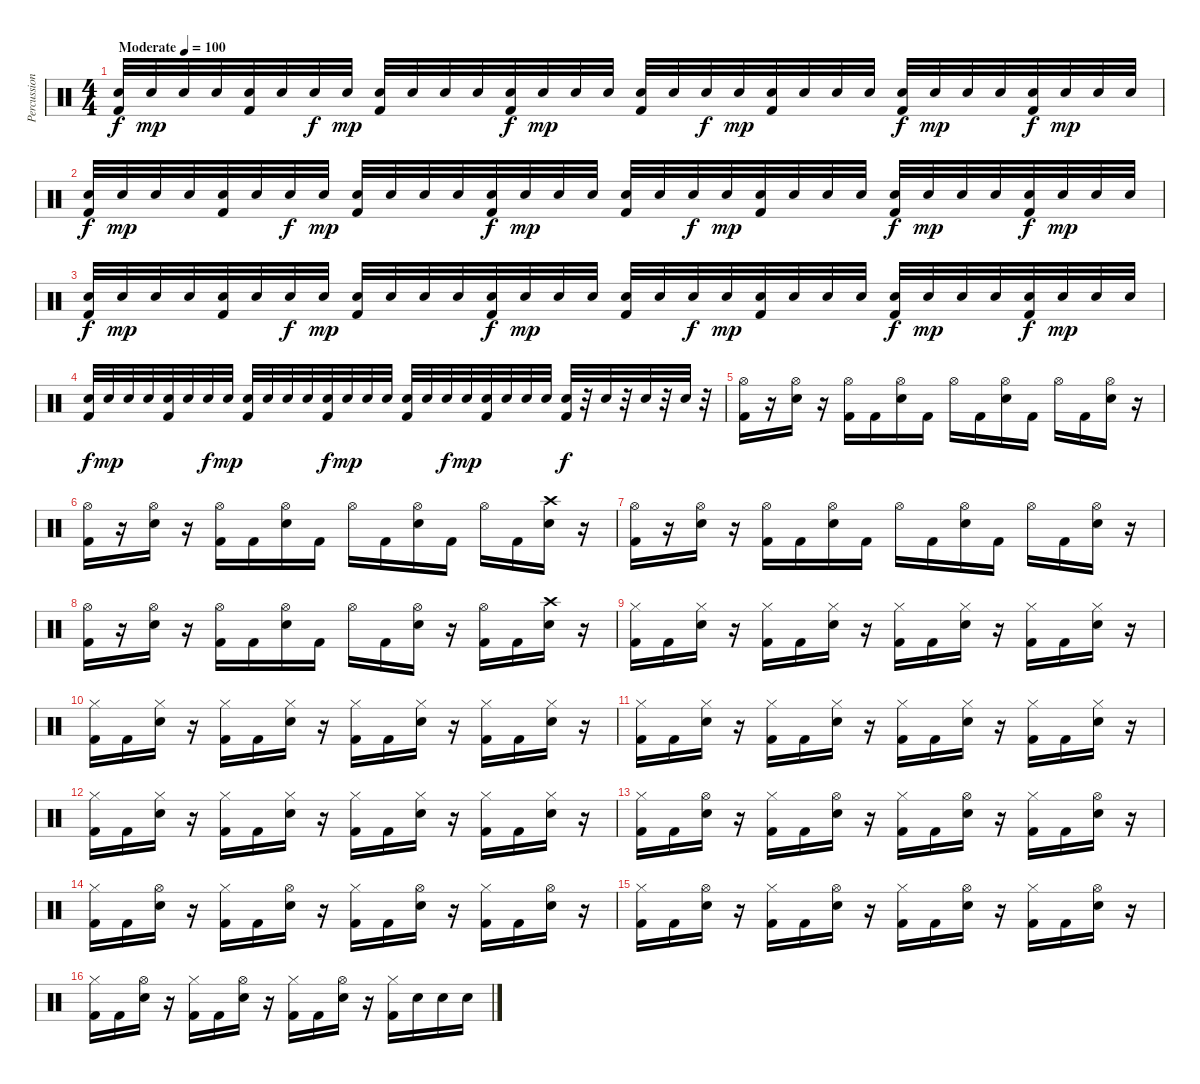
\track ("Percussions" "Percussion") {instrument percussion}
\staff {score}
\articulation defaults
\ts (4 4)
\tempo (100 "Moderate")
\clef neutral
\ks c
("Electric Snare (hit)" "Kick (hit) 2").32{dy f} "Electric Snare (hit)".32{dy mp} "Electric Snare (hit)".32 "Electric Snare (hit)".32 ("Electric Snare (hit)" "Kick (hit) 2").32 "Electric Snare (hit)".32 "Electric Snare (hit)".32{dy f} "Electric Snare (hit)".32{dy mp} ("Electric Snare (hit)" "Kick (hit) 2").32 "Electric Snare (hit)".32 "Electric Snare (hit)".32 "Electric Snare (hit)".32 ("Electric Snare (hit)" "Kick (hit) 2").32{dy f} "Electric Snare (hit)".32{dy mp} "Electric Snare (hit)".32 "Electric Snare (hit)".32 ("Electric Snare (hit)" "Kick (hit) 2").32 "Electric Snare (hit)".32 "Electric Snare (hit)".32{dy f} "Electric Snare (hit)".32{dy mp} ("Electric Snare (hit)" "Kick (hit) 2").32 "Electric Snare (hit)".32 "Electric Snare (hit)".32 "Electric Snare (hit)".32 ("Electric Snare (hit)" "Kick (hit) 2").32{dy f} "Electric Snare (hit)".32{dy mp} "Electric Snare (hit)".32 "Electric Snare (hit)".32 ("Electric Snare (hit)" "Kick (hit) 2").32{dy f} "Electric Snare (hit)".32{dy mp} "Electric Snare (hit)".32 "Electric Snare (hit)".32 |
("Electric Snare (hit)" "Kick (hit) 2").32{dy f} "Electric Snare (hit)".32{dy mp} "Electric Snare (hit)".32 "Electric Snare (hit)".32 ("Electric Snare (hit)" "Kick (hit) 2").32 "Electric Snare (hit)".32 "Electric Snare (hit)".32{dy f} "Electric Snare (hit)".32{dy mp} ("Electric Snare (hit)" "Kick (hit) 2").32 "Electric Snare (hit)".32 "Electric Snare (hit)".32 "Electric Snare (hit)".32 ("Electric Snare (hit)" "Kick (hit) 2").32{dy f} "Electric Snare (hit)".32{dy mp} "Electric Snare (hit)".32 "Electric Snare (hit)".32 ("Electric Snare (hit)" "Kick (hit) 2").32 "Electric Snare (hit)".32 "Electric Snare (hit)".32{dy f} "Electric Snare (hit)".32{dy mp} ("Electric Snare (hit)" "Kick (hit) 2").32 "Electric Snare (hit)".32 "Electric Snare (hit)".32 "Electric Snare (hit)".32 ("Electric Snare (hit)" "Kick (hit) 2").32{dy f} "Electric Snare (hit)".32{dy mp} "Electric Snare (hit)".32 "Electric Snare (hit)".32 ("Electric Snare (hit)" "Kick (hit) 2").32{dy f} "Electric Snare (hit)".32{dy mp} "Electric Snare (hit)".32 "Electric Snare (hit)".32 |
("Electric Snare (hit)" "Kick (hit) 2").32{dy f} "Electric Snare (hit)".32{dy mp} "Electric Snare (hit)".32 "Electric Snare (hit)".32 ("Electric Snare (hit)" "Kick (hit) 2").32 "Electric Snare (hit)".32 "Electric Snare (hit)".32{dy f} "Electric Snare (hit)".32{dy mp} ("Electric Snare (hit)" "Kick (hit) 2").32 "Electric Snare (hit)".32 "Electric Snare (hit)".32 "Electric Snare (hit)".32 ("Electric Snare (hit)" "Kick (hit) 2").32{dy f} "Electric Snare (hit)".32{dy mp} "Electric Snare (hit)".32 "Electric Snare (hit)".32 ("Electric Snare (hit)" "Kick (hit) 2").32 "Electric Snare (hit)".32 "Electric Snare (hit)".32{dy f} "Electric Snare (hit)".32{dy mp} ("Electric Snare (hit)" "Kick (hit) 2").32 "Electric Snare (hit)".32 "Electric Snare (hit)".32 "Electric Snare (hit)".32 ("Electric Snare (hit)" "Kick (hit) 2").32{dy f} "Electric Snare (hit)".32{dy mp} "Electric Snare (hit)".32 "Electric Snare (hit)".32 ("Electric Snare (hit)" "Kick (hit) 2").32{dy f} "Electric Snare (hit)".32{dy mp} "Electric Snare (hit)".32 "Electric Snare (hit)".32 |
("Electric Snare (hit)" "Kick (hit) 2").32{dy f} "Electric Snare (hit)".32{dy mp} "Electric Snare (hit)".32 "Electric Snare (hit)".32 ("Electric Snare (hit)" "Kick (hit) 2").32 "Electric Snare (hit)".32 "Electric Snare (hit)".32{dy f} "Electric Snare (hit)".32{dy mp} ("Electric Snare (hit)" "Kick (hit) 2").32 "Electric Snare (hit)".32 "Electric Snare (hit)".32 "Electric Snare (hit)".32 ("Electric Snare (hit)" "Kick (hit) 2").32{dy f} "Electric Snare (hit)".32{dy mp} "Electric Snare (hit)".32 "Electric Snare (hit)".32 ("Electric Snare (hit)" "Kick (hit) 2").32 "Electric Snare (hit)".32 "Electric Snare (hit)".32{dy f} "Electric Snare (hit)".32{dy mp} ("Electric Snare (hit)" "Kick (hit) 2").32 "Electric Snare (hit)".32 "Electric Snare (hit)".32 "Electric Snare (hit)".32 ("Electric Snare (hit)" "Kick (hit) 2").32{dy f} r.32 "Electric Snare (hit)".32 r.32 "Electric Snare (hit)".32 r.32 "Electric Snare (hit)".32 r.32 |
("Hi-Hat (open)" "Kick (hit) 2").16 r.16 ("Hi-Hat (open)" "Electric Snare (hit)").16 r.16 ("Hi-Hat (open)" "Kick (hit) 2").16 "Kick (hit) 2".16 ("Hi-Hat (open)" "Electric Snare (hit)").16 "Kick (hit) 2".16 "Hi-Hat (open)".16 "Kick (hit) 2".16 ("Hi-Hat (open)" "Electric Snare (hit)").16 "Kick (hit) 2".16 "Hi-Hat (open)".16 "Kick (hit) 2".16 ("Hi-Hat (open)" "Electric Snare (hit)").16 r.16 |
("Hi-Hat (open)" "Kick (hit) 2").16 r.16 ("Hi-Hat (open)" "Electric Snare (hit)").16 r.16 ("Hi-Hat (open)" "Kick (hit) 2").16 "Kick (hit) 2".16 ("Hi-Hat (open)" "Electric Snare (hit)").16 "Kick (hit) 2".16 "Hi-Hat (open)".16 "Kick (hit) 2".16 ("Hi-Hat (open)" "Electric Snare (hit)").16 "Kick (hit) 2".16 "Hi-Hat (open)".16 "Kick (hit) 2".16 ("Crash high (hit)" "Electric Snare (hit)").16 r.16 |
("Hi-Hat (open)" "Kick (hit) 2").16 r.16 ("Hi-Hat (open)" "Electric Snare (hit)").16 r.16 ("Hi-Hat (open)" "Kick (hit) 2").16 "Kick (hit) 2".16 ("Hi-Hat (open)" "Electric Snare (hit)").16 "Kick (hit) 2".16 "Hi-Hat (open)".16 "Kick (hit) 2".16 ("Hi-Hat (open)" "Electric Snare (hit)").16 "Kick (hit) 2".16 "Hi-Hat (open)".16 "Kick (hit) 2".16 ("Hi-Hat (open)" "Electric Snare (hit)").16 r.16 |
("Hi-Hat (open)" "Kick (hit) 2").16 r.16 ("Hi-Hat (open)" "Electric Snare (hit)").16 r.16 ("Hi-Hat (open)" "Kick (hit) 2").16 "Kick (hit) 2".16 ("Hi-Hat (open)" "Electric Snare (hit)").16 "Kick (hit) 2".16 "Hi-Hat (open)".16 "Kick (hit) 2".16 ("Hi-Hat (open)" "Electric Snare (hit)").16 r.16 ("Hi-Hat (open)" "Kick (hit) 2").16 "Kick (hit) 2".16 ("Crash high (hit)" "Electric Snare (hit)").16 r.16 |
("Hi-Hat (closed)" "Kick (hit) 2").16 "Kick (hit) 2".16 ("Hi-Hat (closed)" "Electric Snare (hit)").16 r.16 ("Hi-Hat (closed)" "Kick (hit) 2").16 "Kick (hit) 2".16 ("Hi-Hat (closed)" "Electric Snare (hit)").16 r.16 ("Hi-Hat (closed)" "Kick (hit) 2").16 "Kick (hit) 2".16 ("Hi-Hat (closed)" "Electric Snare (hit)").16 r.16 ("Hi-Hat (closed)" "Kick (hit) 2").16 "Kick (hit) 2".16 ("Hi-Hat (closed)" "Electric Snare (hit)").16 r.16 |
("Hi-Hat (closed)" "Kick (hit) 2").16 "Kick (hit) 2".16 ("Hi-Hat (closed)" "Electric Snare (hit)").16 r.16 ("Hi-Hat (closed)" "Kick (hit) 2").16 "Kick (hit) 2".16 ("Hi-Hat (closed)" "Electric Snare (hit)").16 r.16 ("Hi-Hat (closed)" "Kick (hit) 2").16 "Kick (hit) 2".16 ("Hi-Hat (closed)" "Electric Snare (hit)").16 r.16 ("Hi-Hat (closed)" "Kick (hit) 2").16 "Kick (hit) 2".16 ("Hi-Hat (closed)" "Electric Snare (hit)").16 r.16 |
("Hi-Hat (closed)" "Kick (hit) 2").16 "Kick (hit) 2".16 ("Hi-Hat (closed)" "Electric Snare (hit)").16 r.16 ("Hi-Hat (closed)" "Kick (hit) 2").16 "Kick (hit) 2".16 ("Hi-Hat (closed)" "Electric Snare (hit)").16 r.16 ("Hi-Hat (closed)" "Kick (hit) 2").16 "Kick (hit) 2".16 ("Hi-Hat (closed)" "Electric Snare (hit)").16 r.16 ("Hi-Hat (closed)" "Kick (hit) 2").16 "Kick (hit) 2".16 ("Hi-Hat (closed)" "Electric Snare (hit)").16 r.16 |
("Hi-Hat (closed)" "Kick (hit) 2").16 "Kick (hit) 2".16 ("Hi-Hat (closed)" "Electric Snare (hit)").16 r.16 ("Hi-Hat (closed)" "Kick (hit) 2").16 "Kick (hit) 2".16 ("Hi-Hat (closed)" "Electric Snare (hit)").16 r.16 ("Hi-Hat (closed)" "Kick (hit) 2").16 "Kick (hit) 2".16 ("Hi-Hat (closed)" "Electric Snare (hit)").16 r.16 ("Hi-Hat (closed)" "Kick (hit) 2").16 "Kick (hit) 2".16 ("Hi-Hat (closed)" "Electric Snare (hit)").16 r.16 |
("Hi-Hat (closed)" "Kick (hit) 2").16 "Kick (hit) 2".16 ("Hi-Hat (open)" "Electric Snare (hit)").16 r.16 ("Hi-Hat (closed)" "Kick (hit) 2").16 "Kick (hit) 2".16 ("Hi-Hat (open)" "Electric Snare (hit)").16 r.16 ("Hi-Hat (closed)" "Kick (hit) 2").16 "Kick (hit) 2".16 ("Hi-Hat (open)" "Electric Snare (hit)").16 r.16 ("Hi-Hat (closed)" "Kick (hit) 2").16 "Kick (hit) 2".16 ("Hi-Hat (open)" "Electric Snare (hit)").16 r.16 |
("Hi-Hat (closed)" "Kick (hit) 2").16 "Kick (hit) 2".16 ("Hi-Hat (open)" "Electric Snare (hit)").16 r.16 ("Hi-Hat (closed)" "Kick (hit) 2").16 "Kick (hit) 2".16 ("Hi-Hat (open)" "Electric Snare (hit)").16 r.16 ("Hi-Hat (closed)" "Kick (hit) 2").16 "Kick (hit) 2".16 ("Hi-Hat (open)" "Electric Snare (hit)").16 r.16 ("Hi-Hat (closed)" "Kick (hit) 2").16 "Kick (hit) 2".16 ("Hi-Hat (open)" "Electric Snare (hit)").16 r.16 |
("Hi-Hat (closed)" "Kick (hit) 2").16 "Kick (hit) 2".16 ("Hi-Hat (open)" "Electric Snare (hit)").16 r.16 ("Hi-Hat (closed)" "Kick (hit) 2").16 "Kick (hit) 2".16 ("Hi-Hat (open)" "Electric Snare (hit)").16 r.16 ("Hi-Hat (closed)" "Kick (hit) 2").16 "Kick (hit) 2".16 ("Hi-Hat (open)" "Electric Snare (hit)").16 r.16 ("Hi-Hat (closed)" "Kick (hit) 2").16 "Kick (hit) 2".16 ("Hi-Hat (open)" "Electric Snare (hit)").16 r.16 |
("Hi-Hat (closed)" "Kick (hit) 2").16 "Kick (hit) 2".16 ("Hi-Hat (open)" "Electric Snare (hit)").16 r.16 ("Hi-Hat (closed)" "Kick (hit) 2").16 "Kick (hit) 2".16 ("Hi-Hat (open)" "Electric Snare (hit)").16 r.16 ("Hi-Hat (closed)" "Kick (hit) 2").16 "Kick (hit) 2".16 ("Hi-Hat (open)" "Electric Snare (hit)").16 r.16 ("Hi-Hat (closed)" "Kick (hit) 2").16 "Electric Snare (hit)".16 "Electric Snare (hit)".16 "Electric Snare (hit)".16
